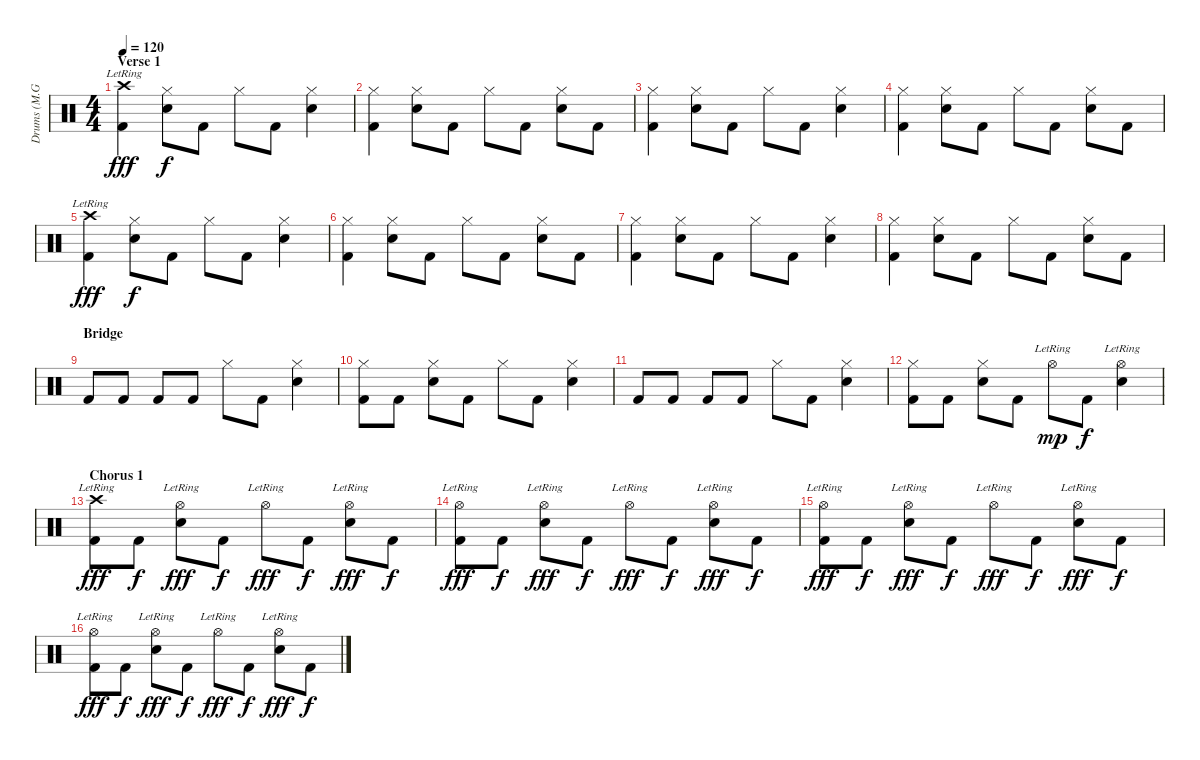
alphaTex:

\track ("Drums (M.Grosskopf)" "Drums (M.G") {instrument percussion}
\staff {score}
\articulation defaults
\ts (4 4)
\section ("" "Verse 1")
\tempo 120
\clef neutral
\ks c
("Crash high (hit)"{lr} "Kick (hit) 2").4{dy fff} ("Hi-Hat (closed)" "Electric Snare (hit)").8{dy f} "Kick (hit) 2".8 "Hi-Hat (closed)".8 "Kick (hit) 2".8 ("Hi-Hat (closed)" "Electric Snare (hit)").4 |
("Hi-Hat (closed)" "Kick (hit) 2").4 ("Hi-Hat (closed)" "Electric Snare (hit)").8 "Kick (hit) 2".8 "Hi-Hat (closed)".8 "Kick (hit) 2".8 ("Hi-Hat (closed)" "Electric Snare (hit)").8 "Kick (hit) 2".8 |
("Hi-Hat (closed)" "Kick (hit) 2").4 ("Hi-Hat (closed)" "Electric Snare (hit)").8 "Kick (hit) 2".8 "Hi-Hat (closed)".8 "Kick (hit) 2".8 ("Hi-Hat (closed)" "Electric Snare (hit)").4 |
("Hi-Hat (closed)" "Kick (hit) 2").4 ("Hi-Hat (closed)" "Electric Snare (hit)").8 "Kick (hit) 2".8 "Hi-Hat (closed)".8 "Kick (hit) 2".8 ("Hi-Hat (closed)" "Electric Snare (hit)").8 "Kick (hit) 2".8 |
("Crash high (hit)"{lr} "Kick (hit) 2").4{dy fff} ("Hi-Hat (closed)" "Electric Snare (hit)").8{dy f} "Kick (hit) 2".8 "Hi-Hat (closed)".8 "Kick (hit) 2".8 ("Hi-Hat (closed)" "Electric Snare (hit)").4 |
("Hi-Hat (closed)" "Kick (hit) 2").4 ("Hi-Hat (closed)" "Electric Snare (hit)").8 "Kick (hit) 2".8 "Hi-Hat (closed)".8 "Kick (hit) 2".8 ("Hi-Hat (closed)" "Electric Snare (hit)").8 "Kick (hit) 2".8 |
("Hi-Hat (closed)" "Kick (hit) 2").4 ("Hi-Hat (closed)" "Electric Snare (hit)").8 "Kick (hit) 2".8 "Hi-Hat (closed)".8 "Kick (hit) 2".8 ("Hi-Hat (closed)" "Electric Snare (hit)").4 |
("Hi-Hat (closed)" "Kick (hit) 2").4 ("Hi-Hat (closed)" "Electric Snare (hit)").8 "Kick (hit) 2".8 "Hi-Hat (closed)".8 "Kick (hit) 2".8 ("Hi-Hat (closed)" "Electric Snare (hit)").8 "Kick (hit) 2".8 |
\section ("" "Bridge")
"Kick (hit) 2".8 "Kick (hit) 2".8 "Kick (hit) 2".8 "Kick (hit) 2".8 "Hi-Hat (closed)".8 "Kick (hit) 2".8 ("Hi-Hat (closed)" "Electric Snare (hit)").4 |
("Hi-Hat (closed)" "Kick (hit) 2").8 "Kick (hit) 2".8 ("Hi-Hat (closed)" "Electric Snare (hit)").8 "Kick (hit) 2".8 "Hi-Hat (closed)".8 "Kick (hit) 2".8 ("Hi-Hat (closed)" "Electric Snare (hit)").4 |
"Kick (hit) 2".8 "Kick (hit) 2".8 "Kick (hit) 2".8 "Kick (hit) 2".8 "Hi-Hat (closed)".8 "Kick (hit) 2".8 ("Hi-Hat (closed)" "Electric Snare (hit)").4 |
("Hi-Hat (closed)" "Kick (hit) 2").8 "Kick (hit) 2".8 ("Hi-Hat (closed)" "Electric Snare (hit)").8 "Kick (hit) 2".8 "Hi-Hat (open)"{lr}.8{dy mp} "Kick (hit) 2".8{dy f} ("Hi-Hat (open)"{lr} "Electric Snare (hit)").4 |
\section ("" "Chorus 1")
("Crash high (hit)"{lr} "Kick (hit) 2").8{dy fff} "Kick (hit) 2".8{dy f} ("Hi-Hat (open)"{lr} "Electric Snare (hit)").8{dy fff} "Kick (hit) 2".8{dy f} "Hi-Hat (open)"{lr}.8{dy fff} "Kick (hit) 2".8{dy f} ("Hi-Hat (open)"{lr} "Electric Snare (hit)").8{dy fff} "Kick (hit) 2".8{dy f} |
("Hi-Hat (open)"{lr} "Kick (hit) 2").8{dy fff} "Kick (hit) 2".8{dy f} ("Hi-Hat (open)"{lr} "Electric Snare (hit)").8{dy fff} "Kick (hit) 2".8{dy f} "Hi-Hat (open)"{lr}.8{dy fff} "Kick (hit) 2".8{dy f} ("Hi-Hat (open)"{lr} "Electric Snare (hit)").8{dy fff} "Kick (hit) 2".8{dy f} |
("Hi-Hat (open)"{lr} "Kick (hit) 2").8{dy fff} "Kick (hit) 2".8{dy f} ("Hi-Hat (open)"{lr} "Electric Snare (hit)").8{dy fff} "Kick (hit) 2".8{dy f} "Hi-Hat (open)"{lr}.8{dy fff} "Kick (hit) 2".8{dy f} ("Hi-Hat (open)"{lr} "Electric Snare (hit)").8{dy fff} "Kick (hit) 2".8{dy f} |
("Hi-Hat (open)"{lr} "Kick (hit) 2").8{dy fff} "Kick (hit) 2".8{dy f} ("Hi-Hat (open)"{lr} "Electric Snare (hit)").8{dy fff} "Kick (hit) 2".8{dy f} "Hi-Hat (open)"{lr}.8{dy fff} "Kick (hit) 2".8{dy f} ("Hi-Hat (open)"{lr} "Electric Snare (hit)").8{dy fff} "Kick (hit) 2".8{dy f}
